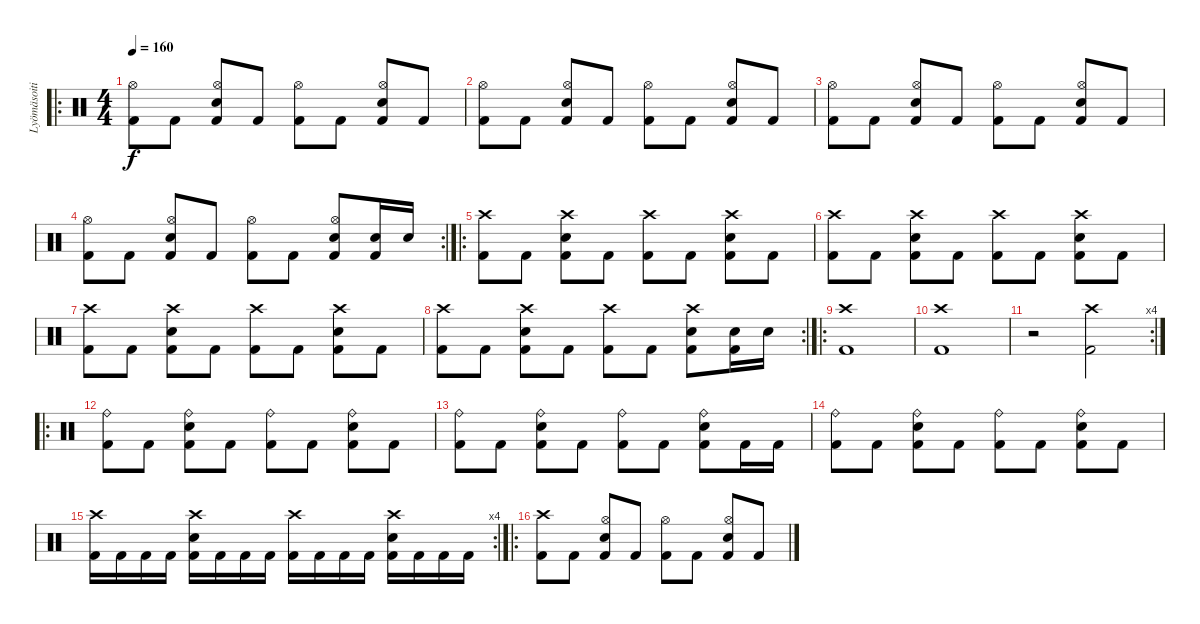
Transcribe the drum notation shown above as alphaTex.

\track ("Lyömäsoitin" "Lyömäsoiti") {instrument percussion}
\staff {score}
\articulation defaults
\ro
\ts (4 4)
\tempo 160
\clef neutral
\ks c
("Kick (hit) 2" "Hi-Hat (open)").8{dy f} "Kick (hit) 2".8 ("Kick (hit) 2" "Hi-Hat (open)" "Electric Snare (hit)").8 "Kick (hit) 2".8 ("Kick (hit) 2" "Hi-Hat (open)").8 "Kick (hit) 2".8 ("Kick (hit) 2" "Hi-Hat (open)" "Electric Snare (hit)").8 "Kick (hit) 2".8 |
("Kick (hit) 2" "Hi-Hat (open)").8 "Kick (hit) 2".8 ("Kick (hit) 2" "Hi-Hat (open)" "Electric Snare (hit)").8 "Kick (hit) 2".8 ("Kick (hit) 2" "Hi-Hat (open)").8 "Kick (hit) 2".8 ("Kick (hit) 2" "Hi-Hat (open)" "Electric Snare (hit)").8 "Kick (hit) 2".8 |
("Kick (hit) 2" "Hi-Hat (open)").8 "Kick (hit) 2".8 ("Kick (hit) 2" "Hi-Hat (open)" "Electric Snare (hit)").8 "Kick (hit) 2".8 ("Kick (hit) 2" "Hi-Hat (open)").8 "Kick (hit) 2".8 ("Kick (hit) 2" "Hi-Hat (open)" "Electric Snare (hit)").8 "Kick (hit) 2".8 |
\rc 2
("Kick (hit) 2" "Hi-Hat (open)").8 "Kick (hit) 2".8 ("Kick (hit) 2" "Hi-Hat (open)" "Electric Snare (hit)").8 "Kick (hit) 2".8 ("Kick (hit) 2" "Hi-Hat (open)").8 "Kick (hit) 2".8 ("Kick (hit) 2" "Hi-Hat (open)" "Electric Snare (hit)").8 ("Kick (hit) 2" "Electric Snare (hit)").16 "Electric Snare (hit)".16 |
\ro
("Kick (hit) 2" "Crash high (hit)").8 "Kick (hit) 2".8 ("Kick (hit) 2" "Crash high (hit)" "Electric Snare (hit)").8 "Kick (hit) 2".8 ("Kick (hit) 2" "Crash high (hit)").8 "Kick (hit) 2".8 ("Kick (hit) 2" "Crash high (hit)" "Electric Snare (hit)").8 "Kick (hit) 2".8 |
("Kick (hit) 2" "Crash high (hit)").8 "Kick (hit) 2".8 ("Kick (hit) 2" "Crash high (hit)" "Electric Snare (hit)").8 "Kick (hit) 2".8 ("Kick (hit) 2" "Crash high (hit)").8 "Kick (hit) 2".8 ("Kick (hit) 2" "Crash high (hit)" "Electric Snare (hit)").8 "Kick (hit) 2".8 |
("Kick (hit) 2" "Crash high (hit)").8 "Kick (hit) 2".8 ("Kick (hit) 2" "Crash high (hit)" "Electric Snare (hit)").8 "Kick (hit) 2".8 ("Kick (hit) 2" "Crash high (hit)").8 "Kick (hit) 2".8 ("Kick (hit) 2" "Crash high (hit)" "Electric Snare (hit)").8 "Kick (hit) 2".8 |
\rc 2
("Kick (hit) 2" "Crash high (hit)").8 "Kick (hit) 2".8 ("Kick (hit) 2" "Crash high (hit)" "Electric Snare (hit)").8 "Kick (hit) 2".8 ("Kick (hit) 2" "Crash high (hit)").8 "Kick (hit) 2".8 ("Kick (hit) 2" "Crash high (hit)" "Electric Snare (hit)").8 ("Kick (hit) 2" "Electric Snare (hit)").16 "Electric Snare (hit)".16 |
\ro
("Kick (hit) 2" "Crash high (hit)").1 |
("Kick (hit) 2" "Crash high (hit)").1 |
\rc 4
r.2 ("Kick (hit) 2" "Crash high (hit)").2 |
\ro
("Kick (hit) 2" "Ride (bell)").8 "Kick (hit) 2".8 ("Kick (hit) 2" "Ride (bell)" "Electric Snare (hit)").8 "Kick (hit) 2".8 ("Kick (hit) 2" "Ride (bell)").8 "Kick (hit) 2".8 ("Kick (hit) 2" "Ride (bell)" "Electric Snare (hit)").8 "Kick (hit) 2".8 |
("Kick (hit) 2" "Ride (bell)").8 "Kick (hit) 2".8 ("Kick (hit) 2" "Ride (bell)" "Electric Snare (hit)").8 "Kick (hit) 2".8 ("Kick (hit) 2" "Ride (bell)").8 "Kick (hit) 2".8 ("Kick (hit) 2" "Ride (bell)" "Electric Snare (hit)").8 "Kick (hit) 2".16 "Kick (hit) 2".16 |
("Kick (hit) 2" "Ride (bell)").8 "Kick (hit) 2".8 ("Kick (hit) 2" "Ride (bell)" "Electric Snare (hit)").8 "Kick (hit) 2".8 ("Kick (hit) 2" "Ride (bell)").8 "Kick (hit) 2".8 ("Kick (hit) 2" "Ride (bell)" "Electric Snare (hit)").8 "Kick (hit) 2".8 |
\rc 4
("Kick (hit) 2" "Crash high (hit)").16 "Kick (hit) 2".16 "Kick (hit) 2".16 "Kick (hit) 2".16 ("Kick (hit) 2" "Crash high (hit)" "Electric Snare (hit)").16 "Kick (hit) 2".16 "Kick (hit) 2".16 "Kick (hit) 2".16 ("Kick (hit) 2" "Crash high (hit)").16 "Kick (hit) 2".16 "Kick (hit) 2".16 "Kick (hit) 2".16 ("Kick (hit) 2" "Crash high (hit)" "Electric Snare (hit)").16 "Kick (hit) 2".16 "Kick (hit) 2".16 "Kick (hit) 2".16 |
\ro
("Kick (hit) 2" "Crash high (hit)").8 "Kick (hit) 2".8 ("Kick (hit) 2" "Hi-Hat (open)" "Electric Snare (hit)").8 "Kick (hit) 2".8 ("Kick (hit) 2" "Hi-Hat (open)").8 "Kick (hit) 2".8 ("Kick (hit) 2" "Hi-Hat (open)" "Electric Snare (hit)").8 "Kick (hit) 2".8
